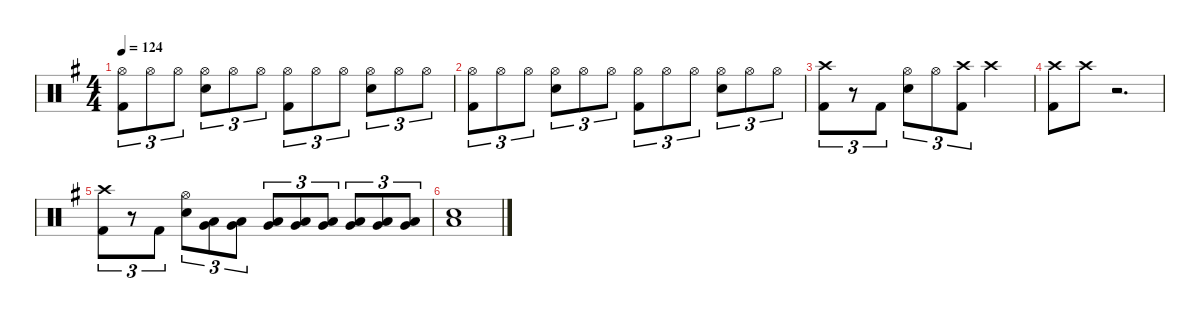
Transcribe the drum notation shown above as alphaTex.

\defaultSystemsLayout 4
\hideDynamics
\bracketExtendMode nobrackets
\singleTrackTrackNamePolicy hidden
\multiTrackTrackNamePolicy hidden
\otherSystemsTrackNameOrientation horizontal
\track ("Drums" "drm.") {defaultSystemsLayout 4 instrument percussion}
\staff {score}
\articulation defaults
\ts (4 4)
\tempo 124
\clef neutral
\ks g
("Hi-Hat (open)"{acc forcenatural} "Kick (hit) 2"{acc forcenatural}).8{tu (3 2) dy mf beam Down} "Hi-Hat (open)"{acc forcenatural}.8{tu (3 2) beam Down} "Hi-Hat (open)"{acc forcenatural}.8{tu (3 2) beam Down} ("Hi-Hat (open)"{acc forcenatural} "Snare (hit) 2"{acc forcenatural}).8{tu (3 2) beam Down} "Hi-Hat (open)"{acc forcenatural}.8{tu (3 2) beam Down} "Hi-Hat (open)"{acc forcenatural}.8{tu (3 2) beam Down} ("Hi-Hat (open)"{acc forcenatural} "Kick (hit) 2"{acc forcenatural}).8{tu (3 2) beam Down} "Hi-Hat (open)"{acc forcenatural}.8{tu (3 2) beam Down} "Hi-Hat (open)"{acc forcenatural}.8{tu (3 2) beam Down} ("Hi-Hat (open)"{acc forcenatural} "Snare (hit) 2"{acc forcenatural}).8{tu (3 2) beam Down} "Hi-Hat (open)"{acc forcenatural}.8{tu (3 2) beam Down} "Hi-Hat (open)"{acc forcenatural}.8{tu (3 2) beam Down} |
("Hi-Hat (open)"{acc forcenatural} "Kick (hit) 2"{acc forcenatural}).8{tu (3 2) beam Down} "Hi-Hat (open)"{acc forcenatural}.8{tu (3 2) beam Down} "Hi-Hat (open)"{acc forcenatural}.8{tu (3 2) beam Down} ("Hi-Hat (open)"{acc forcenatural} "Snare (hit) 2"{acc forcenatural}).8{tu (3 2) beam Down} "Hi-Hat (open)"{acc forcenatural}.8{tu (3 2) beam Down} "Hi-Hat (open)"{acc forcenatural}.8{tu (3 2) beam Down} ("Hi-Hat (open)"{acc forcenatural} "Kick (hit) 2"{acc forcenatural}).8{tu (3 2) beam Down} "Hi-Hat (open)"{acc forcenatural}.8{tu (3 2) beam Down} "Hi-Hat (open)"{acc forcenatural}.8{tu (3 2) beam Down} ("Hi-Hat (open)"{acc forcenatural} "Snare (hit) 2"{acc forcenatural}).8{tu (3 2) beam Down} "Hi-Hat (open)"{acc forcenatural}.8{tu (3 2) beam Down} "Hi-Hat (open)"{acc forcenatural}.8{tu (3 2) beam Down} |
("Crash high (hit)"{acc forcenatural} "Kick (hit) 2"{acc forcenatural}).8{tu (3 2) beam Down} r.8{tu (3 2) beam Down} "Kick (hit) 2"{acc forcenatural}.8{tu (3 2) dy ff beam Down} ("Hi-Hat (open)"{acc forcenatural} "Snare (hit) 2"{acc forcenatural}).8{tu (3 2) dy mf beam Down} "Hi-Hat (open)"{acc forcenatural}.8{tu (3 2) dy p beam Down} ("Crash high (hit)"{acc forcenatural} "Kick (hit) 2"{acc forcenatural}).8{tu (3 2) dy mf beam Down} "Crash high (hit)"{acc forcenatural}.2{dy ppp beam Down} |
("Crash high (hit)"{acc forcenatural} "Kick (hit) 2"{acc forcenatural}).8{dy mf beam Down} "Crash high (hit)"{acc forcenatural}.8{dy ppp beam Down} r.2{d beam Down} |
("Crash high (hit)"{acc forcenatural} "Kick (hit) 2"{acc forcenatural}).8{tu (3 2) dy mf beam Down} r.8{tu (3 2) beam Down} "Kick (hit) 2"{acc forcenatural}.8{tu (3 2) dy ff beam Down} ("Hi-Hat (open)"{acc forcenatural} "Snare (hit) 2"{acc forcenatural}).8{tu (3 2) dy mp beam Down} ("Very Low Tom (hit)"{acc forcenatural} "Low Floor Tom (hit)"{acc forcenatural}).8{tu (3 2) dy pp beam Down} ("Very Low Tom (hit)"{acc forcenatural} "Low Floor Tom (hit)"{acc forcenatural}).8{tu (3 2) dy p beam Down} ("Very Low Tom (hit)"{acc forcenatural} "Low Floor Tom (hit)"{acc forcenatural}).8{tu (3 2) dy mp beam Up} ("Very Low Tom (hit)"{acc forcenatural} "Low Floor Tom (hit)"{acc forcenatural}).8{tu (3 2) dy mf beam Up} ("Very Low Tom (hit)"{acc forcenatural} "Low Floor Tom (hit)"{acc forcenatural}).8{tu (3 2) dy f beam Up} ("Very Low Tom (hit)"{acc forcenatural} "Low Floor Tom (hit)"{acc forcenatural}).8{tu (3 2) beam Up} ("Very Low Tom (hit)"{acc forcenatural} "Low Floor Tom (hit)"{acc forcenatural}).8{tu (3 2) dy ff beam Up} ("Very Low Tom (hit)"{acc forcenatural} "Low Floor Tom (hit)"{acc forcenatural}).8{tu (3 2) beam Up} |
("Low Tom (hit)"{acc forcenatural} "Snare (hit) 2"{acc forcenatural}).1{dy fff beam Down}
